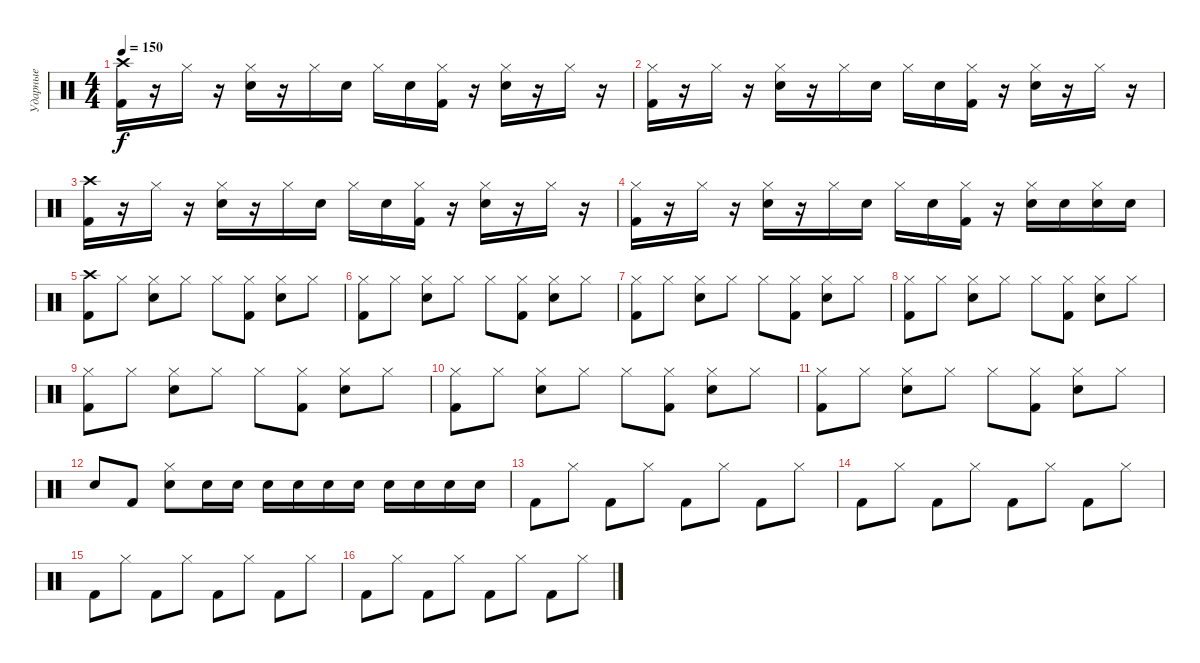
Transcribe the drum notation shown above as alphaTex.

\track ("Ударные" "Ударные") {instrument percussion}
\staff {score}
\articulation defaults
\ts (4 4)
\tempo 150
\clef neutral
\ks c
("Kick (hit) 2" "Crash high (hit)").16{dy f} r.16 "Hi-Hat (closed)".16 r.16 ("Electric Snare (hit)" "Hi-Hat (closed)").16 r.16 "Hi-Hat (closed)".16 "Electric Snare (hit)".16 "Hi-Hat (closed)".16 "Electric Snare (hit)".16 ("Kick (hit) 2" "Hi-Hat (closed)").16 r.16 ("Electric Snare (hit)" "Hi-Hat (closed)").16 r.16 "Hi-Hat (closed)".16 r.16 |
("Kick (hit) 2" "Hi-Hat (closed)").16 r.16 "Hi-Hat (closed)".16 r.16 ("Electric Snare (hit)" "Hi-Hat (closed)").16 r.16 "Hi-Hat (closed)".16 "Electric Snare (hit)".16 "Hi-Hat (closed)".16 "Electric Snare (hit)".16 ("Kick (hit) 2" "Hi-Hat (closed)").16 r.16 ("Electric Snare (hit)" "Hi-Hat (closed)").16 r.16 "Hi-Hat (closed)".16 r.16 |
("Kick (hit) 2" "Crash high (hit)").16 r.16 "Hi-Hat (closed)".16 r.16 ("Electric Snare (hit)" "Hi-Hat (closed)").16 r.16 "Hi-Hat (closed)".16 "Electric Snare (hit)".16 "Hi-Hat (closed)".16 "Electric Snare (hit)".16 ("Kick (hit) 2" "Hi-Hat (closed)").16 r.16 ("Electric Snare (hit)" "Hi-Hat (closed)").16 r.16 "Hi-Hat (closed)".16 r.16 |
("Kick (hit) 2" "Hi-Hat (closed)").16 r.16 "Hi-Hat (closed)".16 r.16 ("Electric Snare (hit)" "Hi-Hat (closed)").16 r.16 "Hi-Hat (closed)".16 "Electric Snare (hit)".16 "Hi-Hat (closed)".16 "Electric Snare (hit)".16 ("Kick (hit) 2" "Hi-Hat (closed)").16 r.16 ("Electric Snare (hit)" "Hi-Hat (closed)").16 "Electric Snare (hit)".16 ("Electric Snare (hit)" "Hi-Hat (closed)").16 "Electric Snare (hit)".16 |
("Kick (hit) 2" "Crash high (hit)").8 "Hi-Hat (closed)".8 ("Electric Snare (hit)" "Hi-Hat (closed)").8 "Hi-Hat (closed)".8 "Hi-Hat (closed)".8 ("Kick (hit) 2" "Hi-Hat (closed)").8 ("Electric Snare (hit)" "Hi-Hat (closed)").8 "Hi-Hat (closed)".8 |
("Kick (hit) 2" "Hi-Hat (closed)").8 "Hi-Hat (closed)".8 ("Electric Snare (hit)" "Hi-Hat (closed)").8 "Hi-Hat (closed)".8 "Hi-Hat (closed)".8 ("Kick (hit) 2" "Hi-Hat (closed)").8 ("Electric Snare (hit)" "Hi-Hat (closed)").8 "Hi-Hat (closed)".8 |
("Kick (hit) 2" "Hi-Hat (closed)").8 "Hi-Hat (closed)".8 ("Electric Snare (hit)" "Hi-Hat (closed)").8 "Hi-Hat (closed)".8 "Hi-Hat (closed)".8 ("Kick (hit) 2" "Hi-Hat (closed)").8 ("Electric Snare (hit)" "Hi-Hat (closed)").8 "Hi-Hat (closed)".8 |
("Kick (hit) 2" "Hi-Hat (closed)").8 "Hi-Hat (closed)".8 ("Electric Snare (hit)" "Hi-Hat (closed)").8 "Hi-Hat (closed)".8 "Hi-Hat (closed)".8 ("Kick (hit) 2" "Hi-Hat (closed)").8 ("Electric Snare (hit)" "Hi-Hat (closed)").8 "Hi-Hat (closed)".8 |
("Kick (hit) 2" "Hi-Hat (closed)").8 "Hi-Hat (closed)".8 ("Electric Snare (hit)" "Hi-Hat (closed)").8 "Hi-Hat (closed)".8 "Hi-Hat (closed)".8 ("Kick (hit) 2" "Hi-Hat (closed)").8 ("Electric Snare (hit)" "Hi-Hat (closed)").8 "Hi-Hat (closed)".8 |
("Kick (hit) 2" "Hi-Hat (closed)").8 "Hi-Hat (closed)".8 ("Electric Snare (hit)" "Hi-Hat (closed)").8 "Hi-Hat (closed)".8 "Hi-Hat (closed)".8 ("Kick (hit) 2" "Hi-Hat (closed)").8 ("Electric Snare (hit)" "Hi-Hat (closed)").8 "Hi-Hat (closed)".8 |
("Kick (hit) 2" "Hi-Hat (closed)").8 "Hi-Hat (closed)".8 ("Electric Snare (hit)" "Hi-Hat (closed)").8 "Hi-Hat (closed)".8 "Hi-Hat (closed)".8 ("Kick (hit) 2" "Hi-Hat (closed)").8 ("Electric Snare (hit)" "Hi-Hat (closed)").8 "Hi-Hat (closed)".8 |
"Electric Snare (hit)".8 "Kick (hit) 2".8 ("Electric Snare (hit)" "Hi-Hat (closed)").8 "Electric Snare (hit)".16 "Electric Snare (hit)".16 "Electric Snare (hit)".16 "Electric Snare (hit)".16 "Electric Snare (hit)".16 "Electric Snare (hit)".16 "Electric Snare (hit)".16 "Electric Snare (hit)".16 "Electric Snare (hit)".16 "Electric Snare (hit)".16 |
"Kick (hit) 2".8 "Hi-Hat (closed)".8 "Kick (hit) 2".8 "Hi-Hat (closed)".8 "Kick (hit) 2".8 "Hi-Hat (closed)".8 "Kick (hit) 2".8 "Hi-Hat (closed)".8 |
"Kick (hit) 2".8 "Hi-Hat (closed)".8 "Kick (hit) 2".8 "Hi-Hat (closed)".8 "Kick (hit) 2".8 "Hi-Hat (closed)".8 "Kick (hit) 2".8 "Hi-Hat (closed)".8 |
"Kick (hit) 2".8 "Hi-Hat (closed)".8 "Kick (hit) 2".8 "Hi-Hat (closed)".8 "Kick (hit) 2".8 "Hi-Hat (closed)".8 "Kick (hit) 2".8 "Hi-Hat (closed)".8 |
"Kick (hit) 2".8 "Hi-Hat (closed)".8 "Kick (hit) 2".8 "Hi-Hat (closed)".8 "Kick (hit) 2".8 "Hi-Hat (closed)".8 "Kick (hit) 2".8 "Hi-Hat (closed)".8
